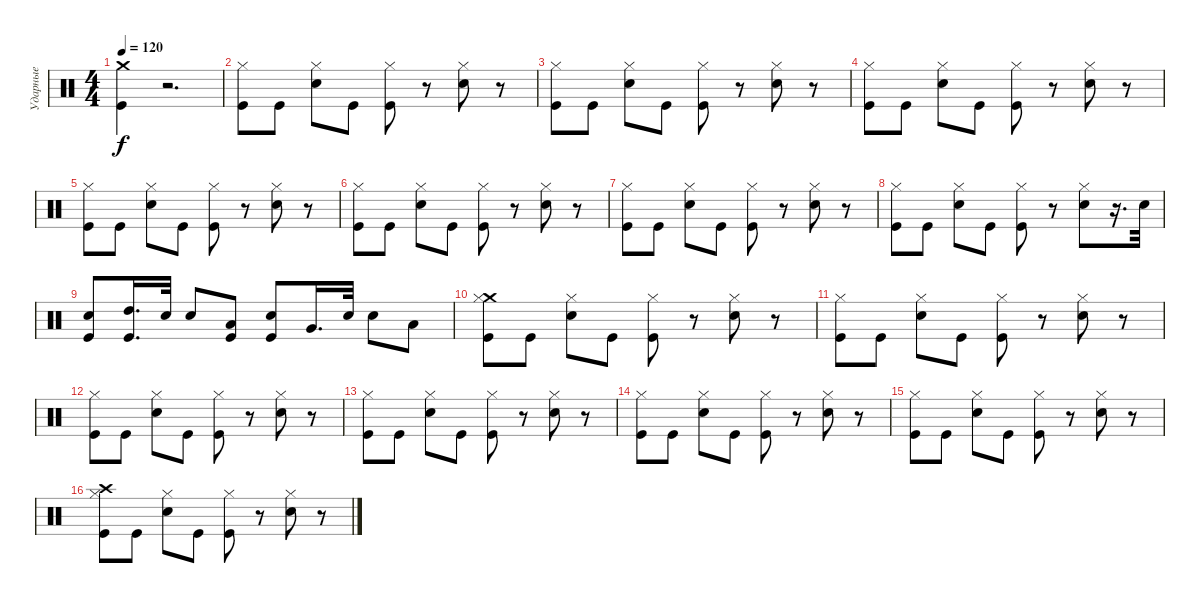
\track ("Ударные" "Ударные") {instrument percussion}
\staff {score}
\articulation defaults
\ts (4 4)
\tempo 120
\clef neutral
\ks c
("Kick (hit)" "Crash medium (hit)").4{dy f} r.2{d} |
("Hi-Hat (closed)" "Kick (hit)").8 "Kick (hit)".8 ("Hi-Hat (closed)" "Snare (hit) 2").8 "Kick (hit)".8 ("Hi-Hat (closed)" "Kick (hit)").8 r.8 ("Hi-Hat (closed)" "Snare (hit) 2").8 r.8 |
("Hi-Hat (closed)" "Kick (hit)").8 "Kick (hit)".8 ("Hi-Hat (closed)" "Snare (hit) 2").8 "Kick (hit)".8 ("Hi-Hat (closed)" "Kick (hit)").8 r.8 ("Hi-Hat (closed)" "Snare (hit) 2").8 r.8 |
("Hi-Hat (closed)" "Kick (hit)").8 "Kick (hit)".8 ("Hi-Hat (closed)" "Snare (hit) 2").8 "Kick (hit)".8 ("Hi-Hat (closed)" "Kick (hit)").8 r.8 ("Hi-Hat (closed)" "Snare (hit) 2").8 r.8 |
("Hi-Hat (closed)" "Kick (hit)").8 "Kick (hit)".8 ("Hi-Hat (closed)" "Snare (hit) 2").8 "Kick (hit)".8 ("Hi-Hat (closed)" "Kick (hit)").8 r.8 ("Hi-Hat (closed)" "Snare (hit) 2").8 r.8 |
("Hi-Hat (closed)" "Kick (hit)").8 "Kick (hit)".8 ("Hi-Hat (closed)" "Snare (hit) 2").8 "Kick (hit)".8 ("Hi-Hat (closed)" "Kick (hit)").8 r.8 ("Hi-Hat (closed)" "Snare (hit) 2").8 r.8 |
("Hi-Hat (closed)" "Kick (hit)").8 "Kick (hit)".8 ("Hi-Hat (closed)" "Snare (hit) 2").8 "Kick (hit)".8 ("Hi-Hat (closed)" "Kick (hit)").8 r.8 ("Hi-Hat (closed)" "Snare (hit) 2").8 r.8 |
("Hi-Hat (closed)" "Kick (hit)").8 "Kick (hit)".8 ("Hi-Hat (closed)" "Snare (hit) 2").8 "Kick (hit)".8 ("Hi-Hat (closed)" "Kick (hit)").8 r.8 ("Hi-Hat (closed)" "Snare (hit) 2").8 r.16{d} "Snare (hit) 2".32 |
("Snare (hit) 2" "Kick (hit)").8 ("High Tom (hit)" "Kick (hit)").16{d} "Snare (hit) 2".32 "Snare (hit) 2".8 ("Low Tom (hit)" "Kick (hit)").8 ("Snare (hit) 2" "Kick (hit)").8 "Very Low Tom (hit)".16{d} "Snare (hit) 2".32 "Snare (hit) 2".8 "Low Floor Tom (hit)".8 |
("Crash medium (hit)" "Hi-Hat (closed)" "Kick (hit)").8 "Kick (hit)".8 ("Hi-Hat (closed)" "Snare (hit) 2").8 "Kick (hit)".8 ("Hi-Hat (closed)" "Kick (hit)").8 r.8 ("Hi-Hat (closed)" "Snare (hit) 2").8 r.8 |
("Hi-Hat (closed)" "Kick (hit)").8 "Kick (hit)".8 ("Hi-Hat (closed)" "Snare (hit) 2").8 "Kick (hit)".8 ("Hi-Hat (closed)" "Kick (hit)").8 r.8 ("Hi-Hat (closed)" "Snare (hit) 2").8 r.8 |
("Hi-Hat (closed)" "Kick (hit)").8 "Kick (hit)".8 ("Hi-Hat (closed)" "Snare (hit) 2").8 "Kick (hit)".8 ("Hi-Hat (closed)" "Kick (hit)").8 r.8 ("Hi-Hat (closed)" "Snare (hit) 2").8 r.8 |
("Hi-Hat (closed)" "Kick (hit)").8 "Kick (hit)".8 ("Hi-Hat (closed)" "Snare (hit) 2").8 "Kick (hit)".8 ("Hi-Hat (closed)" "Kick (hit)").8 r.8 ("Hi-Hat (closed)" "Snare (hit) 2").8 r.8 |
("Hi-Hat (closed)" "Kick (hit)").8 "Kick (hit)".8 ("Hi-Hat (closed)" "Snare (hit) 2").8 "Kick (hit)".8 ("Hi-Hat (closed)" "Kick (hit)").8 r.8 ("Hi-Hat (closed)" "Snare (hit) 2").8 r.8 |
("Hi-Hat (closed)" "Kick (hit)").8 "Kick (hit)".8 ("Hi-Hat (closed)" "Snare (hit) 2").8 "Kick (hit)".8 ("Hi-Hat (closed)" "Kick (hit)").8 r.8 ("Hi-Hat (closed)" "Snare (hit) 2").8 r.8 |
("Crash high (hit)" "Hi-Hat (closed)" "Kick (hit)").8 "Kick (hit)".8 ("Hi-Hat (closed)" "Snare (hit) 2").8 "Kick (hit)".8 ("Hi-Hat (closed)" "Kick (hit)").8 r.8 ("Hi-Hat (closed)" "Snare (hit) 2").8 r.8
